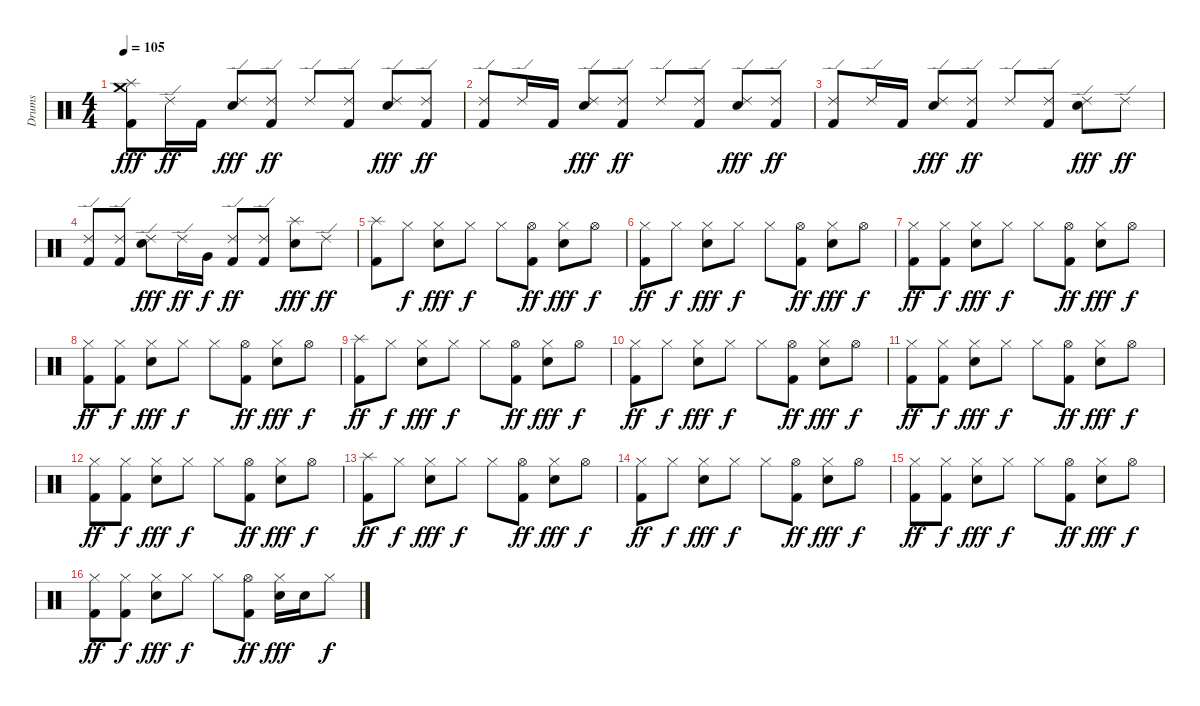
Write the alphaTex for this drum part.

\track ("Drums" "Drums") {instrument percussion}
\staff {score}
\articulation defaults
\ts (4 4)
\tempo 105
\clef neutral
\ks c
("Splash (hit)" "Crash medium (hit)" "Kick (hit) 2").8{dy fff} "Ride (edge) 2".16{dy ff} "Kick (hit) 2".16 ("Ride (edge) 2" "Electric Snare (hit)").8{dy fff} ("Ride (edge) 2" "Kick (hit) 2").8{dy ff} "Ride (edge) 2".8 ("Ride (edge) 2" "Kick (hit) 2").8 ("Ride (edge) 2" "Electric Snare (hit)").8{dy fff} ("Ride (edge) 2" "Kick (hit) 2").8{dy ff} |
("Ride (edge) 2" "Kick (hit) 2").8 "Ride (edge) 2".16 "Kick (hit) 2".16 ("Ride (edge) 2" "Electric Snare (hit)").8{dy fff} ("Ride (edge) 2" "Kick (hit) 2").8{dy ff} "Ride (edge) 2".8 ("Ride (edge) 2" "Kick (hit) 2").8 ("Ride (edge) 2" "Electric Snare (hit)").8{dy fff} ("Ride (edge) 2" "Kick (hit) 2").8{dy ff} |
("Ride (edge) 2" "Kick (hit) 2").8 "Ride (edge) 2".16 "Kick (hit) 2".16 ("Ride (edge) 2" "Electric Snare (hit)").8{dy fff} ("Ride (edge) 2" "Kick (hit) 2").8{dy ff} "Ride (edge) 2".8 ("Ride (edge) 2" "Kick (hit) 2").8 ("Ride (edge) 2" "Electric Snare (hit)").8{dy fff} "Ride (edge) 2".8{dy ff} |
("Ride (edge) 2" "Kick (hit) 2").8 ("Ride (edge) 2" "Kick (hit) 2").8 ("Ride (edge) 2" "Electric Snare (hit)").8{dy fff} "Ride (edge) 2".16{dy ff} "Very Low Tom (hit)".16{dy f} ("Ride (edge) 2" "Kick (hit) 2").8{dy ff} ("Ride (edge) 2" "Kick (hit) 2").8 ("Splash (hit)" "Electric Snare (hit)").8{dy fff} "Ride (edge) 2".8{dy ff} |
("Splash (hit)" "Kick (hit) 2").8 "Hi-Hat (closed)".8{dy f} ("Hi-Hat (closed)" "Electric Snare (hit)").8{dy fff} "Hi-Hat (closed)".8{dy f} "Hi-Hat (closed)".8 ("Hi-Hat (open)" "Kick (hit) 2").8{dy ff} ("Hi-Hat (closed)" "Electric Snare (hit)").8{dy fff} "Hi-Hat (open)".8{dy f} |
("Hi-Hat (closed)" "Kick (hit) 2").8{dy ff} "Hi-Hat (closed)".8{dy f} ("Hi-Hat (closed)" "Electric Snare (hit)").8{dy fff} "Hi-Hat (closed)".8{dy f} "Hi-Hat (closed)".8 ("Hi-Hat (open)" "Kick (hit) 2").8{dy ff} ("Hi-Hat (closed)" "Electric Snare (hit)").8{dy fff} "Hi-Hat (open)".8{dy f} |
("Hi-Hat (closed)" "Kick (hit) 2").8{dy ff} ("Hi-Hat (closed)" "Kick (hit) 2").8{dy f} ("Hi-Hat (closed)" "Electric Snare (hit)").8{dy fff} "Hi-Hat (closed)".8{dy f} "Hi-Hat (closed)".8 ("Hi-Hat (open)" "Kick (hit) 2").8{dy ff} ("Hi-Hat (closed)" "Electric Snare (hit)").8{dy fff} "Hi-Hat (open)".8{dy f} |
("Hi-Hat (closed)" "Kick (hit) 2").8{dy ff} ("Hi-Hat (closed)" "Kick (hit) 2").8{dy f} ("Hi-Hat (closed)" "Electric Snare (hit)").8{dy fff} "Hi-Hat (closed)".8{dy f} "Hi-Hat (closed)".8 ("Hi-Hat (open)" "Kick (hit) 2").8{dy ff} ("Hi-Hat (closed)" "Electric Snare (hit)").8{dy fff} "Hi-Hat (open)".8{dy f} |
("Splash (hit)" "Kick (hit) 2").8{dy ff} "Hi-Hat (closed)".8{dy f} ("Hi-Hat (closed)" "Electric Snare (hit)").8{dy fff} "Hi-Hat (closed)".8{dy f} "Hi-Hat (closed)".8 ("Hi-Hat (open)" "Kick (hit) 2").8{dy ff} ("Hi-Hat (closed)" "Electric Snare (hit)").8{dy fff} "Hi-Hat (open)".8{dy f} |
("Hi-Hat (closed)" "Kick (hit) 2").8{dy ff} "Hi-Hat (closed)".8{dy f} ("Hi-Hat (closed)" "Electric Snare (hit)").8{dy fff} "Hi-Hat (closed)".8{dy f} "Hi-Hat (closed)".8 ("Hi-Hat (open)" "Kick (hit) 2").8{dy ff} ("Hi-Hat (closed)" "Electric Snare (hit)").8{dy fff} "Hi-Hat (open)".8{dy f} |
("Hi-Hat (closed)" "Kick (hit) 2").8{dy ff} ("Hi-Hat (closed)" "Kick (hit) 2").8{dy f} ("Hi-Hat (closed)" "Electric Snare (hit)").8{dy fff} "Hi-Hat (closed)".8{dy f} "Hi-Hat (closed)".8 ("Hi-Hat (open)" "Kick (hit) 2").8{dy ff} ("Hi-Hat (closed)" "Electric Snare (hit)").8{dy fff} "Hi-Hat (open)".8{dy f} |
("Hi-Hat (closed)" "Kick (hit) 2").8{dy ff} ("Hi-Hat (closed)" "Kick (hit) 2").8{dy f} ("Hi-Hat (closed)" "Electric Snare (hit)").8{dy fff} "Hi-Hat (closed)".8{dy f} "Hi-Hat (closed)".8 ("Hi-Hat (open)" "Kick (hit) 2").8{dy ff} ("Hi-Hat (closed)" "Electric Snare (hit)").8{dy fff} "Hi-Hat (open)".8{dy f} |
("Splash (hit)" "Kick (hit) 2").8{dy ff} "Hi-Hat (closed)".8{dy f} ("Hi-Hat (closed)" "Electric Snare (hit)").8{dy fff} "Hi-Hat (closed)".8{dy f} "Hi-Hat (closed)".8 ("Hi-Hat (open)" "Kick (hit) 2").8{dy ff} ("Hi-Hat (closed)" "Electric Snare (hit)").8{dy fff} "Hi-Hat (open)".8{dy f} |
("Hi-Hat (closed)" "Kick (hit) 2").8{dy ff} "Hi-Hat (closed)".8{dy f} ("Hi-Hat (closed)" "Electric Snare (hit)").8{dy fff} "Hi-Hat (closed)".8{dy f} "Hi-Hat (closed)".8 ("Hi-Hat (open)" "Kick (hit) 2").8{dy ff} ("Hi-Hat (closed)" "Electric Snare (hit)").8{dy fff} "Hi-Hat (open)".8{dy f} |
("Hi-Hat (closed)" "Kick (hit) 2").8{dy ff} ("Hi-Hat (closed)" "Kick (hit) 2").8{dy f} ("Hi-Hat (closed)" "Electric Snare (hit)").8{dy fff} "Hi-Hat (closed)".8{dy f} "Hi-Hat (closed)".8 ("Hi-Hat (open)" "Kick (hit) 2").8{dy ff} ("Hi-Hat (closed)" "Electric Snare (hit)").8{dy fff} "Hi-Hat (open)".8{dy f} |
("Hi-Hat (closed)" "Kick (hit) 2").8{dy ff} ("Hi-Hat (closed)" "Kick (hit) 2").8{dy f} ("Hi-Hat (closed)" "Electric Snare (hit)").8{dy fff} "Hi-Hat (closed)".8{dy f} "Hi-Hat (closed)".8 ("Hi-Hat (open)" "Kick (hit) 2").8{dy ff} ("Hi-Hat (closed)" "Electric Snare (hit)").16{dy fff} "Electric Snare (hit)".16 "Hi-Hat (closed)".8{dy f}
